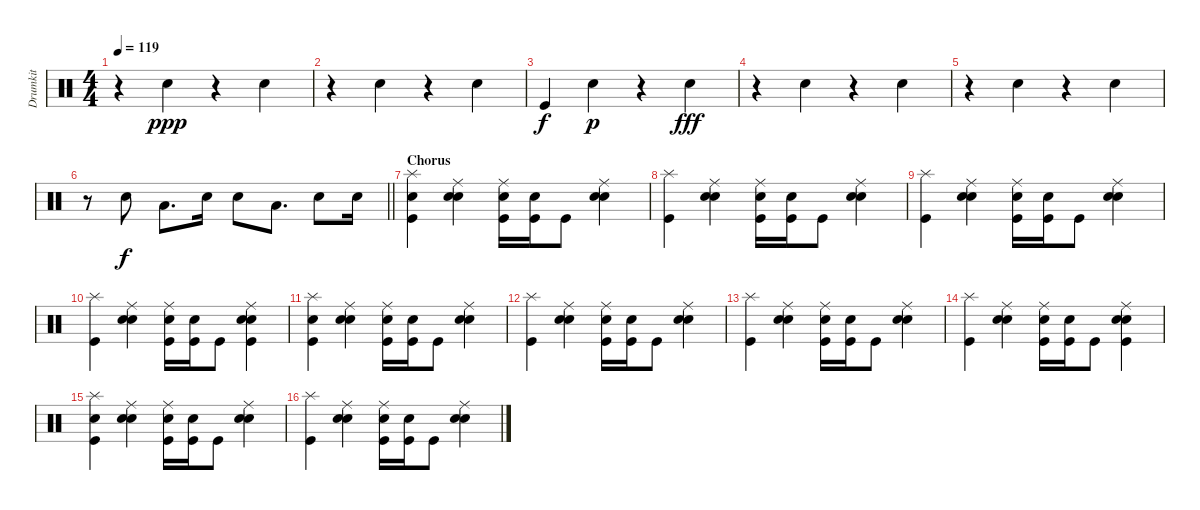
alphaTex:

\track ("Drumkit" "Drumkit") {instrument percussion}
\staff {score}
\articulation defaults
\ts (4 4)
\tempo 119
\clef neutral
\ks c
r.4{dy ppp} "Hand Clap (hit)".4 r.4 "Hand Clap (hit)".4 |
r.4 "Hand Clap (hit)".4 r.4 "Hand Clap (hit)".4 |
"Kick (hit)".4{dy f} "Hand Clap (hit)".4{dy p} r.4 "Hand Clap (hit)".4{dy fff} |
r.4 "Hand Clap (hit)".4 r.4 "Hand Clap (hit)".4 |
r.4 "Hand Clap (hit)".4 r.4 "Hand Clap (hit)".4 |
\barLineRight lightlight
r.8 "Snare (hit) 2".8{dy f} "Low Tom (hit)".8{d} "Snare (hit) 2".16 "Snare (hit) 2".8 "Low Tom (hit)".8{d} "Snare (hit) 2".8 "Snare (hit) 2".16 |
\section ("" "Chorus")
("Kick (hit)" "Splash (hit)" "Snare (hit) 2").4 ("Hand Clap (hit)" "Snare (hit) 2" "Ride (middle)").4 ("Kick (hit)" "Snare (hit) 2" "Ride (middle)").16 ("Kick (hit)" "Snare (hit) 2").16 "Kick (hit)".8 ("Hand Clap (hit)" "Snare (hit) 2" "Ride (middle)").4 |
("Kick (hit)" "Splash (hit)").4 ("Hand Clap (hit)" "Snare (hit) 2" "Ride (middle)").4 ("Kick (hit)" "Snare (hit) 2" "Ride (middle)").16 ("Kick (hit)" "Snare (hit) 2").16 "Kick (hit)".8 ("Hand Clap (hit)" "Snare (hit) 2" "Ride (middle)").4 |
("Kick (hit)" "Splash (hit)").4 ("Hand Clap (hit)" "Snare (hit) 2" "Ride (middle)").4 ("Kick (hit)" "Snare (hit) 2" "Ride (middle)").16 ("Kick (hit)" "Snare (hit) 2").16 "Kick (hit)".8 ("Hand Clap (hit)" "Snare (hit) 2" "Ride (middle)").4 |
("Kick (hit)" "Splash (hit)").4 ("Hand Clap (hit)" "Snare (hit) 2" "Ride (middle)").4 ("Kick (hit)" "Snare (hit) 2" "Ride (middle)").16 ("Kick (hit)" "Snare (hit) 2").16 "Kick (hit)".8 ("Hand Clap (hit)" "Snare (hit) 2" "Ride (middle)" "Kick (hit)").4 |
("Kick (hit)" "Splash (hit)" "Snare (hit) 2").4 ("Hand Clap (hit)" "Snare (hit) 2" "Ride (middle)").4 ("Kick (hit)" "Snare (hit) 2" "Ride (middle)").16 ("Kick (hit)" "Snare (hit) 2").16 "Kick (hit)".8 ("Hand Clap (hit)" "Snare (hit) 2" "Ride (middle)").4 |
("Kick (hit)" "Splash (hit)").4 ("Hand Clap (hit)" "Snare (hit) 2" "Ride (middle)").4 ("Kick (hit)" "Snare (hit) 2" "Ride (middle)").16 ("Kick (hit)" "Snare (hit) 2").16 "Kick (hit)".8 ("Hand Clap (hit)" "Snare (hit) 2" "Ride (middle)").4 |
("Kick (hit)" "Splash (hit)").4 ("Hand Clap (hit)" "Snare (hit) 2" "Ride (middle)").4 ("Kick (hit)" "Snare (hit) 2" "Ride (middle)").16 ("Kick (hit)" "Snare (hit) 2").16 "Kick (hit)".8 ("Hand Clap (hit)" "Snare (hit) 2" "Ride (middle)").4 |
("Kick (hit)" "Splash (hit)").4 ("Hand Clap (hit)" "Snare (hit) 2" "Ride (middle)").4 ("Kick (hit)" "Snare (hit) 2" "Ride (middle)").16 ("Kick (hit)" "Snare (hit) 2").16 "Kick (hit)".8 ("Hand Clap (hit)" "Snare (hit) 2" "Ride (middle)" "Kick (hit)").4 |
("Kick (hit)" "Splash (hit)" "Snare (hit) 2").4 ("Hand Clap (hit)" "Snare (hit) 2" "Ride (middle)").4 ("Kick (hit)" "Snare (hit) 2" "Ride (middle)").16 ("Kick (hit)" "Snare (hit) 2").16 "Kick (hit)".8 ("Hand Clap (hit)" "Snare (hit) 2" "Ride (middle)").4 |
("Kick (hit)" "Splash (hit)").4 ("Hand Clap (hit)" "Snare (hit) 2" "Ride (middle)").4 ("Kick (hit)" "Snare (hit) 2" "Ride (middle)").16 ("Kick (hit)" "Snare (hit) 2").16 "Kick (hit)".8 ("Hand Clap (hit)" "Snare (hit) 2" "Ride (middle)").4
